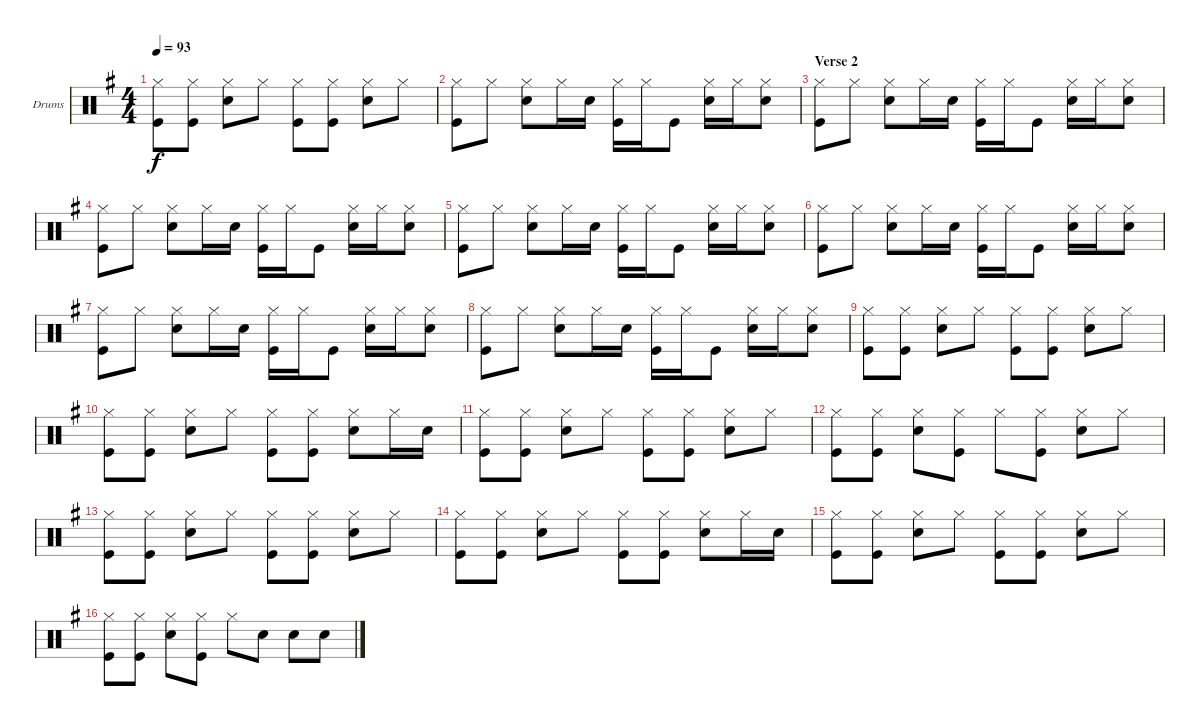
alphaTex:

\bracketExtendMode groupsimilarinstruments
\firstSystemTrackNameOrientation horizontal
\otherSystemsTrackNameOrientation horizontal
\track ("Drumkit" "Drums") {instrument percussion}
\staff {score}
\articulation defaults
\ts (4 4)
\tempo 93
\clef neutral
\ks g
("Hi-Hat (closed)" "Kick (hit)").8{dy f} ("Hi-Hat (closed)" "Kick (hit)").8 ("Hi-Hat (closed)" "Snare (hit) 2").8 "Hi-Hat (closed)".8 ("Hi-Hat (closed)" "Kick (hit)").8 ("Hi-Hat (closed)" "Kick (hit)").8 ("Hi-Hat (closed)" "Snare (hit) 2").8 "Hi-Hat (closed)".8 |
("Hi-Hat (closed)" "Kick (hit)").8 "Hi-Hat (closed)".8 ("Hi-Hat (closed)" "Snare (hit) 2").8 "Hi-Hat (closed)".16 "Snare (hit) 2".16 ("Hi-Hat (closed)" "Kick (hit)").16 "Hi-Hat (closed)".16 "Kick (hit)".8 ("Hi-Hat (closed)" "Snare (hit) 2").16 "Hi-Hat (closed)".16 ("Hi-Hat (closed)" "Snare (hit) 2").8 |
\section ("" "Verse 2")
("Hi-Hat (closed)" "Kick (hit)").8 "Hi-Hat (closed)".8 ("Hi-Hat (closed)" "Snare (hit) 2").8 "Hi-Hat (closed)".16 "Snare (hit) 2".16 ("Hi-Hat (closed)" "Kick (hit)").16 "Hi-Hat (closed)".16 "Kick (hit)".8 ("Hi-Hat (closed)" "Snare (hit) 2").16 "Hi-Hat (closed)".16 ("Hi-Hat (closed)" "Snare (hit) 2").8 |
("Hi-Hat (closed)" "Kick (hit)").8 "Hi-Hat (closed)".8 ("Hi-Hat (closed)" "Snare (hit) 2").8 "Hi-Hat (closed)".16 "Snare (hit) 2".16 ("Hi-Hat (closed)" "Kick (hit)").16 "Hi-Hat (closed)".16 "Kick (hit)".8 ("Hi-Hat (closed)" "Snare (hit) 2").16 "Hi-Hat (closed)".16 ("Hi-Hat (closed)" "Snare (hit) 2").8 |
("Hi-Hat (closed)" "Kick (hit)").8 "Hi-Hat (closed)".8 ("Hi-Hat (closed)" "Snare (hit) 2").8 "Hi-Hat (closed)".16 "Snare (hit) 2".16 ("Hi-Hat (closed)" "Kick (hit)").16 "Hi-Hat (closed)".16 "Kick (hit)".8 ("Hi-Hat (closed)" "Snare (hit) 2").16 "Hi-Hat (closed)".16 ("Hi-Hat (closed)" "Snare (hit) 2").8 |
("Hi-Hat (closed)" "Kick (hit)").8 "Hi-Hat (closed)".8 ("Hi-Hat (closed)" "Snare (hit) 2").8 "Hi-Hat (closed)".16 "Snare (hit) 2".16 ("Hi-Hat (closed)" "Kick (hit)").16 "Hi-Hat (closed)".16 "Kick (hit)".8 ("Hi-Hat (closed)" "Snare (hit) 2").16 "Hi-Hat (closed)".16 ("Hi-Hat (closed)" "Snare (hit) 2").8 |
("Hi-Hat (closed)" "Kick (hit)").8 "Hi-Hat (closed)".8 ("Hi-Hat (closed)" "Snare (hit) 2").8 "Hi-Hat (closed)".16 "Snare (hit) 2".16 ("Hi-Hat (closed)" "Kick (hit)").16 "Hi-Hat (closed)".16 "Kick (hit)".8 ("Hi-Hat (closed)" "Snare (hit) 2").16 "Hi-Hat (closed)".16 ("Hi-Hat (closed)" "Snare (hit) 2").8 |
("Hi-Hat (closed)" "Kick (hit)").8 "Hi-Hat (closed)".8 ("Hi-Hat (closed)" "Snare (hit) 2").8 "Hi-Hat (closed)".16 "Snare (hit) 2".16 ("Hi-Hat (closed)" "Kick (hit)").16 "Hi-Hat (closed)".16 "Kick (hit)".8 ("Hi-Hat (closed)" "Snare (hit) 2").16 "Hi-Hat (closed)".16 ("Hi-Hat (closed)" "Snare (hit) 2").8 |
("Hi-Hat (closed)" "Kick (hit)").8 ("Hi-Hat (closed)" "Kick (hit)").8 ("Hi-Hat (closed)" "Snare (hit) 2").8 "Hi-Hat (closed)".8 ("Hi-Hat (closed)" "Kick (hit)").8 ("Hi-Hat (closed)" "Kick (hit)").8 ("Hi-Hat (closed)" "Snare (hit) 2").8 "Hi-Hat (closed)".8 |
("Hi-Hat (closed)" "Kick (hit)").8 ("Hi-Hat (closed)" "Kick (hit)").8 ("Hi-Hat (closed)" "Snare (hit) 2").8 "Hi-Hat (closed)".8 ("Hi-Hat (closed)" "Kick (hit)").8 ("Hi-Hat (closed)" "Kick (hit)").8 ("Hi-Hat (closed)" "Snare (hit) 2").8 "Hi-Hat (closed)".16 "Snare (hit) 2".16 |
("Hi-Hat (closed)" "Kick (hit)").8 ("Hi-Hat (closed)" "Kick (hit)").8 ("Hi-Hat (closed)" "Snare (hit) 2").8 "Hi-Hat (closed)".8 ("Hi-Hat (closed)" "Kick (hit)").8 ("Hi-Hat (closed)" "Kick (hit)").8 ("Hi-Hat (closed)" "Snare (hit) 2").8 "Hi-Hat (closed)".8 |
("Hi-Hat (closed)" "Kick (hit)").8 ("Hi-Hat (closed)" "Kick (hit)").8 ("Hi-Hat (closed)" "Snare (hit) 2").8 ("Hi-Hat (closed)" "Kick (hit)").8 "Hi-Hat (closed)".8 ("Hi-Hat (closed)" "Kick (hit)").8 ("Hi-Hat (closed)" "Snare (hit) 2").8 "Hi-Hat (closed)".8 |
("Hi-Hat (closed)" "Kick (hit)").8 ("Hi-Hat (closed)" "Kick (hit)").8 ("Hi-Hat (closed)" "Snare (hit) 2").8 "Hi-Hat (closed)".8 ("Hi-Hat (closed)" "Kick (hit)").8 ("Hi-Hat (closed)" "Kick (hit)").8 ("Hi-Hat (closed)" "Snare (hit) 2").8 "Hi-Hat (closed)".8 |
("Hi-Hat (closed)" "Kick (hit)").8 ("Hi-Hat (closed)" "Kick (hit)").8 ("Hi-Hat (closed)" "Snare (hit) 2").8 "Hi-Hat (closed)".8 ("Hi-Hat (closed)" "Kick (hit)").8 ("Hi-Hat (closed)" "Kick (hit)").8 ("Hi-Hat (closed)" "Snare (hit) 2").8 "Hi-Hat (closed)".16 "Snare (hit) 2".16 |
("Hi-Hat (closed)" "Kick (hit)").8 ("Hi-Hat (closed)" "Kick (hit)").8 ("Hi-Hat (closed)" "Snare (hit) 2").8 "Hi-Hat (closed)".8 ("Hi-Hat (closed)" "Kick (hit)").8 ("Hi-Hat (closed)" "Kick (hit)").8 ("Hi-Hat (closed)" "Snare (hit) 2").8 "Hi-Hat (closed)".8 |
("Hi-Hat (closed)" "Kick (hit)").8 ("Hi-Hat (closed)" "Kick (hit)").8 ("Hi-Hat (closed)" "Snare (hit) 2").8 ("Hi-Hat (closed)" "Kick (hit)").8 "Hi-Hat (closed)".8 "Snare (hit) 2".8 "Snare (hit) 2".8 "Snare (hit) 2".8
